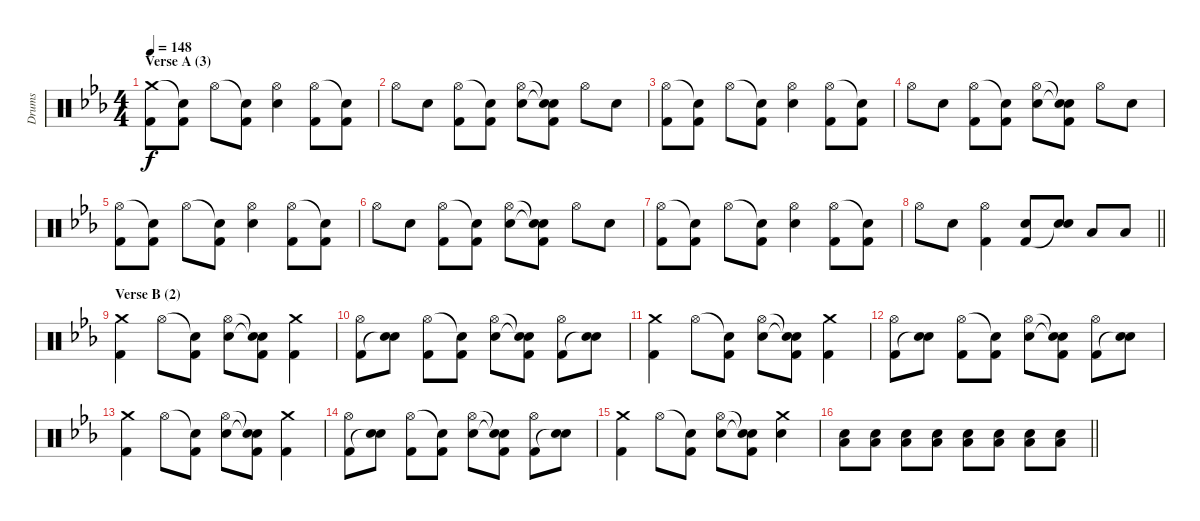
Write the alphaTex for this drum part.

\track ("Drums" "Drums") {instrument percussion}
\staff {score}
\articulation defaults
\ts (4 4)
\section ("" "Verse A (3)")
\tempo 148
\clef neutral
\ks eb
("Crash medium (hit)" "Kick (hit) 2").8{dy f} ("Snare (hit)"{t} "Kick (hit) 2").8 "Hi-Hat (open)".8 ("Snare (hit)"{t} "Kick (hit) 2").8 ("Hi-Hat (open)" "Electric Snare (hit)").4 ("Hi-Hat (open)" "Kick (hit) 2").8 ("Snare (hit)"{t} "Kick (hit) 2").8 |
"Hi-Hat (open)".8 "Electric Snare (hit)".8 ("Hi-Hat (open)" "Kick (hit) 2").8 ("Snare (hit)"{t} "Kick (hit) 2").8 ("Hi-Hat (open)" "Electric Snare (hit)").8 ("Snare (hit)"{t} "Snare (hit)"{t} "Kick (hit) 2").8 "Hi-Hat (open)".8 "Electric Snare (hit)".8 |
("Hi-Hat (open)" "Kick (hit) 2").8 ("Snare (hit)"{t} "Kick (hit) 2").8 "Hi-Hat (open)".8 ("Snare (hit)"{t} "Kick (hit) 2").8 ("Hi-Hat (open)" "Electric Snare (hit)").4 ("Hi-Hat (open)" "Kick (hit) 2").8 ("Snare (hit)"{t} "Kick (hit) 2").8 |
"Hi-Hat (open)".8 "Electric Snare (hit)".8 ("Hi-Hat (open)" "Kick (hit) 2").8 ("Snare (hit)"{t} "Kick (hit) 2").8 ("Hi-Hat (open)" "Electric Snare (hit)").8 ("Snare (hit)"{t} "Snare (hit)"{t} "Kick (hit) 2").8 "Hi-Hat (open)".8 "Electric Snare (hit)".8 |
("Hi-Hat (open)" "Kick (hit) 2").8 ("Snare (hit)"{t} "Kick (hit) 2").8 "Hi-Hat (open)".8 ("Snare (hit)"{t} "Kick (hit) 2").8 ("Hi-Hat (open)" "Electric Snare (hit)").4 ("Hi-Hat (open)" "Kick (hit) 2").8 ("Snare (hit)"{t} "Kick (hit) 2").8 |
"Hi-Hat (open)".8 "Electric Snare (hit)".8 ("Hi-Hat (open)" "Kick (hit) 2").8 ("Snare (hit)"{t} "Kick (hit) 2").8 ("Hi-Hat (open)" "Electric Snare (hit)").8 ("Snare (hit)"{t} "Snare (hit)"{t} "Kick (hit) 2").8 "Hi-Hat (open)".8 "Electric Snare (hit)".8 |
("Hi-Hat (open)" "Kick (hit) 2").8 ("Snare (hit)"{t} "Kick (hit) 2").8 "Hi-Hat (open)".8 ("Snare (hit)"{t} "Kick (hit) 2").8 ("Hi-Hat (open)" "Electric Snare (hit)").4 ("Hi-Hat (open)" "Kick (hit) 2").8 ("Snare (hit)"{t} "Kick (hit) 2").8 |
\barLineRight lightlight "Hi-Hat (open)".8 "Electric Snare (hit)".8
("Hi-Hat (open)" "Kick (hit) 2").4 ("Electric Snare (hit)" "Kick (hit) 2").8 ("Electric Snare (hit)" "Snare (hit)"{t}).8 "Low Floor Tom (hit)".8 "Low Floor Tom (hit)".8 |
\section ("" "Verse B (2)")
("Crash medium (hit)" "Kick (hit) 2").4 "Hi-Hat (open)".8 ("Snare (hit)"{t} "Kick (hit) 2").8 ("Hi-Hat (open)" "Electric Snare (hit)").8 ("Snare (hit)"{t} "Snare (hit)"{t} "Kick (hit) 2").8 ("Crash medium (hit)" "Kick (hit) 2").4 |
("Hi-Hat (open)" "Kick (hit) 2").8 ("Electric Snare (hit)" "Snare (hit)"{t}).8 ("Hi-Hat (open)" "Kick (hit) 2").8 ("Snare (hit)"{t} "Kick (hit) 2").8 ("Hi-Hat (open)" "Electric Snare (hit)").8 ("Snare (hit)"{t} "Snare (hit)"{t} "Kick (hit) 2").8 ("Hi-Hat (open)" "Kick (hit) 2").8 ("Electric Snare (hit)" "Snare (hit)"{t}).8 |
("Crash medium (hit)" "Kick (hit) 2").4 "Hi-Hat (open)".8 ("Snare (hit)"{t} "Kick (hit) 2").8 ("Hi-Hat (open)" "Electric Snare (hit)").8 ("Snare (hit)"{t} "Snare (hit)"{t} "Kick (hit) 2").8 ("Crash medium (hit)" "Kick (hit) 2").4 |
("Hi-Hat (open)" "Kick (hit) 2").8 ("Electric Snare (hit)" "Snare (hit)"{t}).8 ("Hi-Hat (open)" "Kick (hit) 2").8 ("Snare (hit)"{t} "Kick (hit) 2").8 ("Hi-Hat (open)" "Electric Snare (hit)").8 ("Snare (hit)"{t} "Snare (hit)"{t} "Kick (hit) 2").8 ("Hi-Hat (open)" "Kick (hit) 2").8 ("Electric Snare (hit)" "Snare (hit)"{t}).8 |
("Crash medium (hit)" "Kick (hit) 2").4 "Hi-Hat (open)".8 ("Snare (hit)"{t} "Kick (hit) 2").8 ("Hi-Hat (open)" "Electric Snare (hit)").8 ("Snare (hit)"{t} "Snare (hit)"{t} "Kick (hit) 2").8 ("Crash medium (hit)" "Kick (hit) 2").4 |
("Hi-Hat (open)" "Kick (hit) 2").8 ("Electric Snare (hit)" "Snare (hit)"{t}).8 ("Hi-Hat (open)" "Kick (hit) 2").8 ("Snare (hit)"{t} "Kick (hit) 2").8 ("Hi-Hat (open)" "Electric Snare (hit)").8 ("Snare (hit)"{t} "Snare (hit)"{t} "Kick (hit) 2").8 ("Hi-Hat (open)" "Kick (hit) 2").8 ("Electric Snare (hit)" "Snare (hit)"{t}).8 |
("Crash medium (hit)" "Kick (hit) 2").4 "Hi-Hat (open)".8 ("Snare (hit)"{t} "Kick (hit) 2").8 ("Hi-Hat (open)" "Electric Snare (hit)").8 ("Snare (hit)"{t} "Snare (hit)"{t} "Kick (hit) 2").8 ("Crash medium (hit)" "Electric Snare (hit)").4 |
\barLineRight lightlight
("Electric Snare (hit)" "Low Floor Tom (hit)").8 ("Electric Snare (hit)" "Low Floor Tom (hit)").8 ("Electric Snare (hit)" "Low Floor Tom (hit)").8 ("Electric Snare (hit)" "Low Floor Tom (hit)").8 ("Electric Snare (hit)" "Low Floor Tom (hit)").8 ("Electric Snare (hit)" "Low Floor Tom (hit)").8 ("Electric Snare (hit)" "Low Floor Tom (hit)").8 ("Electric Snare (hit)" "Low Floor Tom (hit)").8
